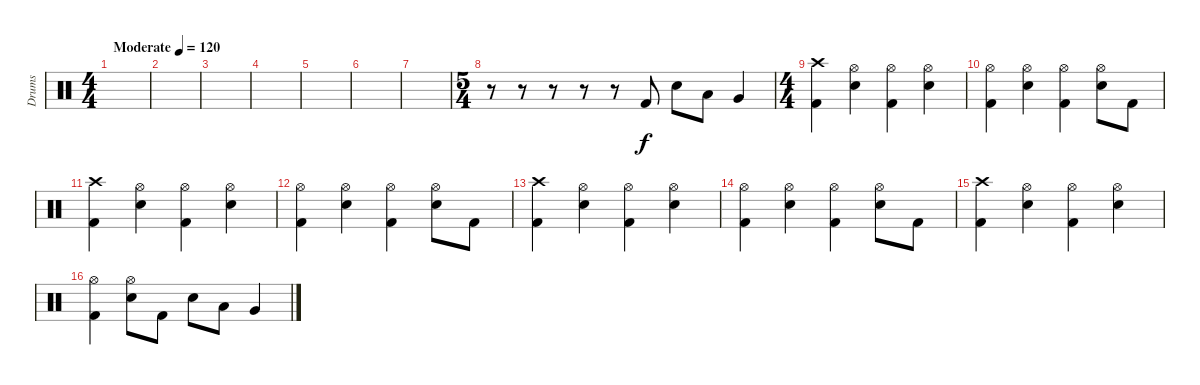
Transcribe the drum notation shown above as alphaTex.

\track ("Drums" "Drums") {instrument percussion}
\staff {score}
\articulation defaults
\ts (4 4)
\tempo (120 "Moderate")
\clef neutral
\ks c
|
|
|
|
|
|
|
\ts (5 4)
r.8 r.8 r.8 r.8 r.8 "Kick (hit) 2".8 "Electric Snare (hit)".8 "Low Tom (hit)".8 "Very Low Tom (hit)".4 |
\ts (4 4)
("Crash high (hit)" "Kick (hit) 2").4 ("Hi-Hat (open)" "Electric Snare (hit)").4 ("Hi-Hat (open)" "Kick (hit) 2").4 ("Hi-Hat (open)" "Electric Snare (hit)").4 |
("Hi-Hat (open)" "Kick (hit) 2").4 ("Hi-Hat (open)" "Electric Snare (hit)").4 ("Hi-Hat (open)" "Kick (hit) 2").4 ("Hi-Hat (open)" "Electric Snare (hit)").8 "Kick (hit) 2".8 |
("Crash high (hit)" "Kick (hit) 2").4 ("Hi-Hat (open)" "Electric Snare (hit)").4 ("Hi-Hat (open)" "Kick (hit) 2").4 ("Hi-Hat (open)" "Electric Snare (hit)").4 |
("Hi-Hat (open)" "Kick (hit) 2").4 ("Hi-Hat (open)" "Electric Snare (hit)").4 ("Hi-Hat (open)" "Kick (hit) 2").4 ("Hi-Hat (open)" "Electric Snare (hit)").8 "Kick (hit) 2".8 |
("Crash high (hit)" "Kick (hit) 2").4 ("Hi-Hat (open)" "Electric Snare (hit)").4 ("Hi-Hat (open)" "Kick (hit) 2").4 ("Hi-Hat (open)" "Electric Snare (hit)").4 |
("Hi-Hat (open)" "Kick (hit) 2").4 ("Hi-Hat (open)" "Electric Snare (hit)").4 ("Hi-Hat (open)" "Kick (hit) 2").4 ("Hi-Hat (open)" "Electric Snare (hit)").8 "Kick (hit) 2".8 |
("Crash high (hit)" "Kick (hit) 2").4 ("Hi-Hat (open)" "Electric Snare (hit)").4 ("Hi-Hat (open)" "Kick (hit) 2").4 ("Hi-Hat (open)" "Electric Snare (hit)").4 |
("Hi-Hat (open)" "Kick (hit) 2").4 ("Hi-Hat (open)" "Electric Snare (hit)").8 "Kick (hit) 2".8 "Electric Snare (hit)".8 "Low Tom (hit)".8 "Very Low Tom (hit)".4
